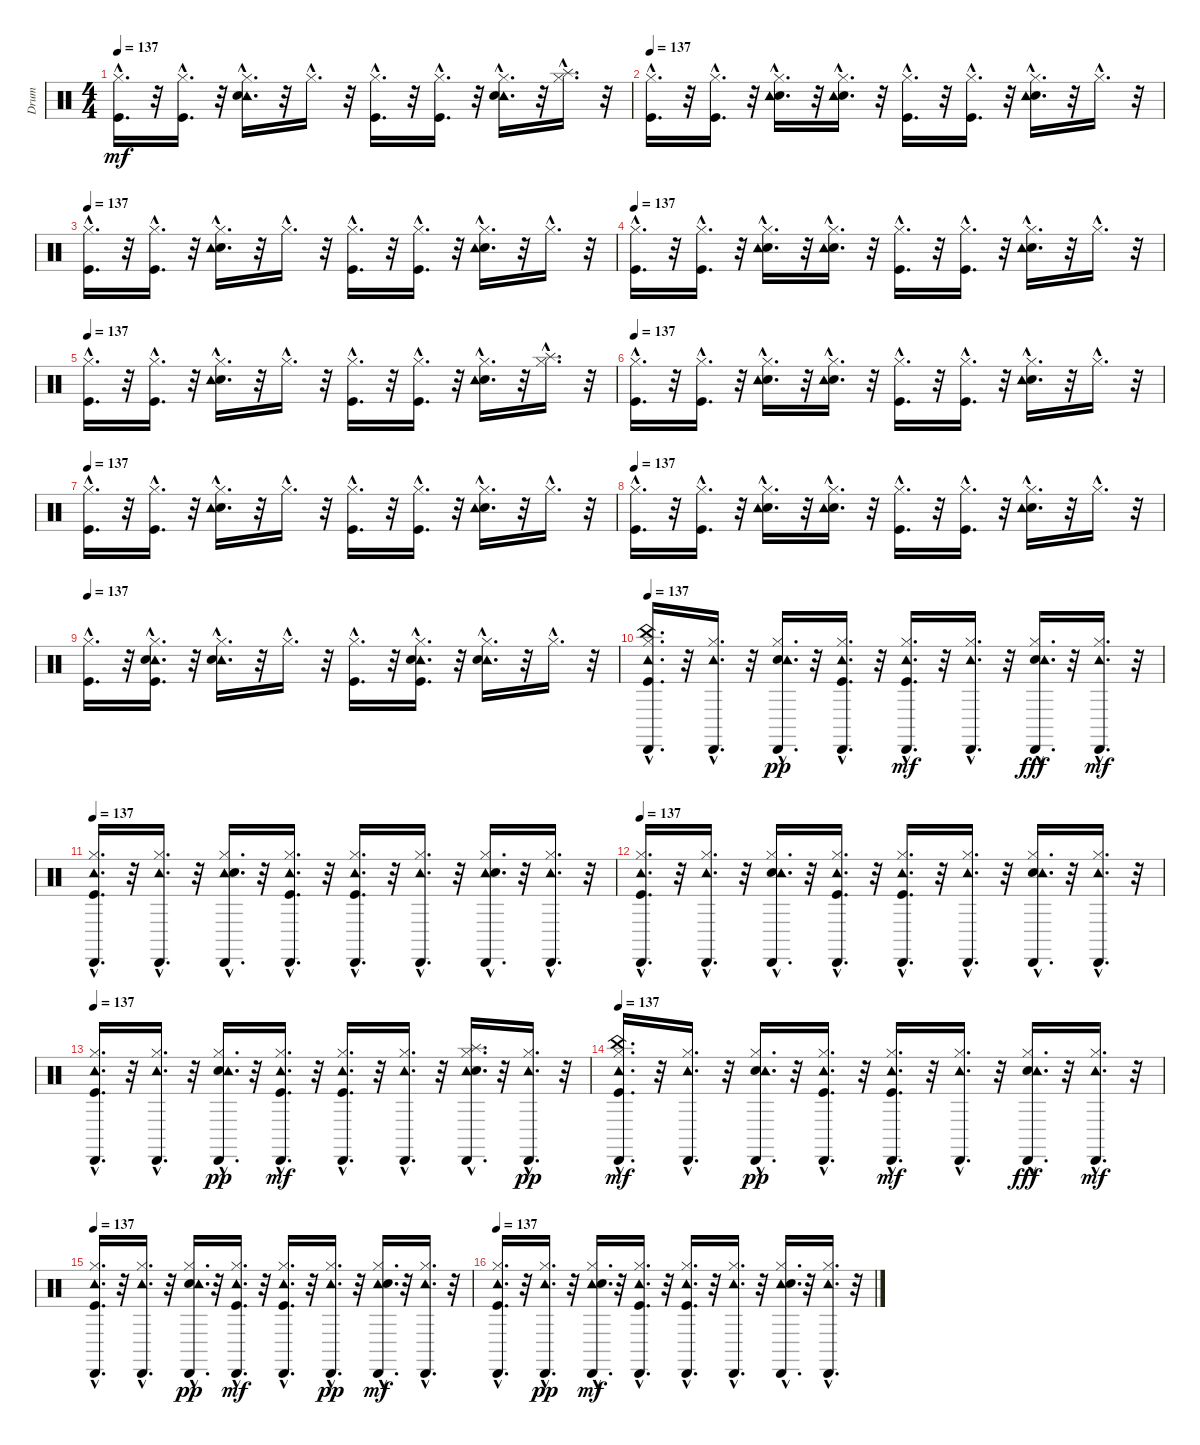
\track ("Drum" "Drum") {instrument percussion}
\staff {score}
\articulation defaults
\ts (4 4)
\tempo 137
\clef neutral
\ks c
("Hi-Hat (closed)"{hac} "Kick (hit)"{hac}).16{d dy mf} r.32 ("Kick (hit)"{hac} "Hi-Hat (closed)"{hac}).16{d} r.32 ("Hi-Hat (closed)"{hac} "Tambourine (hit)"{hac} "Snare (hit) 2"{hac}).16{d} r.32 "Hi-Hat (closed)"{hac}.16{d} r.32 ("Hi-Hat (closed)"{hac} "Kick (hit)"{hac}).16{d} r.32 ("Kick (hit)"{hac} "Hi-Hat (closed)"{hac}).16{d} r.32 ("Tambourine (hit)"{hac} "Snare (hit) 2"{hac} "Hi-Hat (closed)"{hac}).16{d} r.32 ("Hi-Hat (closed)"{hac} "Splash (hit)"{hac}).16{d} r.32 |
\tempo 137
("Kick (hit)"{hac} "Hi-Hat (closed)"{hac}).16{d} r.32 ("Kick (hit)"{hac} "Hi-Hat (closed)"{hac}).16{d} r.32 ("Snare (hit) 2"{hac} "Hi-Hat (closed)"{hac} "Tambourine (hit)"{hac}).16{d} r.32 ("Snare (hit) 2"{hac} "Hi-Hat (closed)"{hac} "Tambourine (hit)"{hac}).16{d} r.32 ("Kick (hit)"{hac} "Hi-Hat (closed)"{hac}).16{d} r.32 ("Kick (hit)"{hac} "Hi-Hat (closed)"{hac}).16{d} r.32 ("Snare (hit) 2"{hac} "Hi-Hat (closed)"{hac} "Tambourine (hit)"{hac}).16{d} r.32 "Hi-Hat (closed)"{hac}.16{d} r.32 |
\tempo 137
("Kick (hit)"{hac} "Hi-Hat (closed)"{hac}).16{d} r.32 ("Kick (hit)"{hac} "Hi-Hat (closed)"{hac}).16{d} r.32 ("Snare (hit) 2"{hac} "Hi-Hat (closed)"{hac} "Tambourine (hit)"{hac}).16{d} r.32 "Hi-Hat (closed)"{hac}.16{d} r.32 ("Kick (hit)"{hac} "Hi-Hat (closed)"{hac}).16{d} r.32 ("Kick (hit)"{hac} "Hi-Hat (closed)"{hac}).16{d} r.32 ("Snare (hit) 2"{hac} "Hi-Hat (closed)"{hac} "Tambourine (hit)"{hac}).16{d} r.32 "Hi-Hat (closed)"{hac}.16{d} r.32 |
\tempo 137
("Kick (hit)"{hac} "Hi-Hat (closed)"{hac}).16{d} r.32 ("Kick (hit)"{hac} "Hi-Hat (closed)"{hac}).16{d} r.32 ("Snare (hit) 2"{hac} "Hi-Hat (closed)"{hac} "Tambourine (hit)"{hac}).16{d} r.32 ("Snare (hit) 2"{hac} "Hi-Hat (closed)"{hac} "Tambourine (hit)"{hac}).16{d} r.32 ("Kick (hit)"{hac} "Hi-Hat (closed)"{hac}).16{d} r.32 ("Kick (hit)"{hac} "Hi-Hat (closed)"{hac}).16{d} r.32 ("Snare (hit) 2"{hac} "Tambourine (hit)"{hac} "Hi-Hat (closed)"{hac}).16{d} r.32 "Hi-Hat (closed)"{hac}.16{d} r.32 |
\tempo 137
("Kick (hit)"{hac} "Hi-Hat (closed)"{hac}).16{d} r.32 ("Hi-Hat (closed)"{hac} "Kick (hit)"{hac}).16{d} r.32 ("Hi-Hat (closed)"{hac} "Snare (hit) 2"{hac} "Tambourine (hit)"{hac}).16{d} r.32 "Hi-Hat (closed)"{hac}.16{d} r.32 ("Hi-Hat (closed)"{hac} "Kick (hit)"{hac}).16{d} r.32 ("Hi-Hat (closed)"{hac} "Kick (hit)"{hac}).16{d} r.32 ("Snare (hit) 2"{hac} "Tambourine (hit)"{hac} "Hi-Hat (closed)"{hac}).16{d} r.32 ("Hi-Hat (closed)"{hac} "Splash (hit)"{hac}).16{d} r.32 |
\tempo 137
("Kick (hit)"{hac} "Hi-Hat (closed)"{hac}).16{d} r.32 ("Kick (hit)"{hac} "Hi-Hat (closed)"{hac}).16{d} r.32 ("Snare (hit) 2"{hac} "Hi-Hat (closed)"{hac} "Tambourine (hit)"{hac}).16{d} r.32 ("Snare (hit) 2"{hac} "Hi-Hat (closed)"{hac} "Tambourine (hit)"{hac}).16{d} r.32 ("Kick (hit)"{hac} "Hi-Hat (closed)"{hac}).16{d} r.32 ("Kick (hit)"{hac} "Hi-Hat (closed)"{hac}).16{d} r.32 ("Snare (hit) 2"{hac} "Hi-Hat (closed)"{hac} "Tambourine (hit)"{hac}).16{d} r.32 "Hi-Hat (closed)"{hac}.16{d} r.32 |
\tempo 137
("Kick (hit)"{hac} "Hi-Hat (closed)"{hac}).16{d} r.32 ("Kick (hit)"{hac} "Hi-Hat (closed)"{hac}).16{d} r.32 ("Snare (hit) 2"{hac} "Hi-Hat (closed)"{hac} "Tambourine (hit)"{hac}).16{d} r.32 "Hi-Hat (closed)"{hac}.16{d} r.32 ("Kick (hit)"{hac} "Hi-Hat (closed)"{hac}).16{d} r.32 ("Kick (hit)"{hac} "Hi-Hat (closed)"{hac}).16{d} r.32 ("Snare (hit) 2"{hac} "Hi-Hat (closed)"{hac} "Tambourine (hit)"{hac}).16{d} r.32 "Hi-Hat (closed)"{hac}.16{d} r.32 |
\tempo 137
("Kick (hit)"{hac} "Hi-Hat (closed)"{hac}).16{d} r.32 ("Hi-Hat (closed)"{hac} "Kick (hit)"{hac}).16{d} r.32 ("Snare (hit) 2"{hac} "Hi-Hat (closed)"{hac} "Tambourine (hit)"{hac}).16{d} r.32 ("Snare (hit) 2"{hac} "Tambourine (hit)"{hac} "Hi-Hat (closed)"{hac}).16{d} r.32 ("Hi-Hat (closed)"{hac} "Kick (hit)"{hac}).16{d} r.32 ("Hi-Hat (closed)"{hac} "Kick (hit)"{hac}).16{d} r.32 ("Snare (hit) 2"{hac} "Hi-Hat (closed)"{hac} "Tambourine (hit)"{hac}).16{d} r.32 "Hi-Hat (closed)"{hac}.16{d} r.32 |
\tempo 137
("Hi-Hat (closed)"{hac} "Kick (hit)"{hac}).16{d} r.32 ("Tambourine (hit)"{hac} "Kick (hit)"{hac} "Hi-Hat (closed)"{hac} "Snare (hit) 2"{hac}).16{d} r.32 ("Hi-Hat (closed)"{hac} "Tambourine (hit)"{hac} "Snare (hit) 2"{hac}).16{d} r.32 "Hi-Hat (closed)"{hac}.16{d} r.32 ("Hi-Hat (closed)"{hac} "Kick (hit)"{hac}).16{d} r.32 ("Kick (hit)"{hac} "Tambourine (hit)"{hac} "Snare (hit) 2"{hac} "Hi-Hat (closed)"{hac}).16{d} r.32 ("Tambourine (hit)"{hac} "Hi-Hat (closed)"{hac} "Snare (hit) 2"{hac}).16{d} r.32 "Hi-Hat (closed)"{hac}.16{d} r.32 |
\tempo 137
("China (hit)"{hac} "Cabasa (hit)"{hac} "Tambourine (hit)"{hac} "Kick (hit)"{hac} "Hi-Hat (closed)"{hac}).16{d} r.32 ("Cabasa (hit)"{hac} "Tambourine (hit)"{hac} "Hi-Hat (closed)"{hac}).16{d} r.32 ("Cabasa (hit)"{hac} "Snare (hit) 2"{hac} "Hi-Hat (closed)"{hac} "Tambourine (hit)"{hac}).16{d dy pp} r.32 ("Kick (hit)"{hac} "Cabasa (hit)"{hac} "Hi-Hat (closed)"{hac} "Tambourine (hit)"{hac}).16{d} r.32 ("Cabasa (hit)"{hac} "Tambourine (hit)"{hac} "Kick (hit)"{hac} "Hi-Hat (closed)"{hac}).16{d dy mf} r.32 ("Cabasa (hit)"{hac} "Tambourine (hit)"{hac} "Hi-Hat (closed)"{hac}).16{d} r.32 ("Cabasa (hit)"{hac} "Snare (hit) 2"{hac} "Hi-Hat (closed)"{hac} "Tambourine (hit)"{hac}).16{d dy fff} r.32 ("Cabasa (hit)"{hac} "Tambourine (hit)"{hac} "Hi-Hat (closed)"{hac}).16{d dy mf} r.32 |
\tempo 137
("Hi-Hat (closed)"{hac} "Kick (hit)"{hac} "Tambourine (hit)"{hac} "Cabasa (hit)"{hac}).16{d} r.32 ("Hi-Hat (closed)"{hac} "Tambourine (hit)"{hac} "Cabasa (hit)"{hac}).16{d} r.32 ("Tambourine (hit)"{hac} "Hi-Hat (closed)"{hac} "Snare (hit) 2"{hac} "Cabasa (hit)"{hac}).16{d} r.32 ("Tambourine (hit)"{hac} "Hi-Hat (closed)"{hac} "Cabasa (hit)"{hac} "Kick (hit)"{hac}).16{d} r.32 ("Hi-Hat (closed)"{hac} "Kick (hit)"{hac} "Tambourine (hit)"{hac} "Cabasa (hit)"{hac}).16{d} r.32 ("Hi-Hat (closed)"{hac} "Tambourine (hit)"{hac} "Cabasa (hit)"{hac}).16{d} r.32 ("Tambourine (hit)"{hac} "Hi-Hat (closed)"{hac} "Snare (hit) 2"{hac} "Cabasa (hit)"{hac}).16{d} r.32 ("Hi-Hat (closed)"{hac} "Tambourine (hit)"{hac} "Cabasa (hit)"{hac}).16{d} r.32 |
\tempo 137
("Kick (hit)"{hac} "Hi-Hat (closed)"{hac} "Tambourine (hit)"{hac} "Cabasa (hit)"{hac}).16{d} r.32 ("Cabasa (hit)"{hac} "Tambourine (hit)"{hac} "Hi-Hat (closed)"{hac}).16{d} r.32 ("Hi-Hat (closed)"{hac} "Snare (hit) 2"{hac} "Tambourine (hit)"{hac} "Cabasa (hit)"{hac}).16{d} r.32 ("Hi-Hat (closed)"{hac} "Tambourine (hit)"{hac} "Cabasa (hit)"{hac} "Kick (hit)"{hac}).16{d} r.32 ("Kick (hit)"{hac} "Tambourine (hit)"{hac} "Hi-Hat (closed)"{hac} "Cabasa (hit)"{hac}).16{d} r.32 ("Tambourine (hit)"{hac} "Hi-Hat (closed)"{hac} "Cabasa (hit)"{hac}).16{d} r.32 ("Hi-Hat (closed)"{hac} "Snare (hit) 2"{hac} "Tambourine (hit)"{hac} "Cabasa (hit)"{hac}).16{d} r.32 ("Tambourine (hit)"{hac} "Hi-Hat (closed)"{hac} "Cabasa (hit)"{hac}).16{d} r.32 |
\tempo 137
("Kick (hit)"{hac} "Hi-Hat (closed)"{hac} "Tambourine (hit)"{hac} "Cabasa (hit)"{hac}).16{d} r.32 ("Cabasa (hit)"{hac} "Tambourine (hit)"{hac} "Hi-Hat (closed)"{hac}).16{d} r.32 ("Hi-Hat (closed)"{hac} "Cabasa (hit)"{hac} "Snare (hit) 2"{hac} "Tambourine (hit)"{hac}).16{d dy pp} r.32 ("Tambourine (hit)"{hac} "Hi-Hat (closed)"{hac} "Cabasa (hit)"{hac} "Kick (hit)"{hac}).16{d dy mf} r.32 ("Hi-Hat (closed)"{hac} "Tambourine (hit)"{hac} "Kick (hit)"{hac} "Cabasa (hit)"{hac}).16{d} r.32 ("Tambourine (hit)"{hac} "Cabasa (hit)"{hac} "Hi-Hat (closed)"{hac}).16{d} r.32 ("Hi-Hat (closed)"{hac} "Tambourine (hit)"{hac} "Splash (hit)"{hac} "Snare (hit) 2"{hac} "Cabasa (hit)"{hac}).16{d} r.32 ("Hi-Hat (closed)"{hac} "Cabasa (hit)"{hac} "Tambourine (hit)"{hac}).16{d dy pp} r.32 |
\tempo 137
("China (hit)"{hac} "Cabasa (hit)"{hac} "Tambourine (hit)"{hac} "Kick (hit)"{hac} "Hi-Hat (closed)"{hac}).16{d dy mf} r.32 ("Cabasa (hit)"{hac} "Tambourine (hit)"{hac} "Hi-Hat (closed)"{hac}).16{d} r.32 ("Cabasa (hit)"{hac} "Snare (hit) 2"{hac} "Hi-Hat (closed)"{hac} "Tambourine (hit)"{hac}).16{d dy pp} r.32 ("Kick (hit)"{hac} "Cabasa (hit)"{hac} "Hi-Hat (closed)"{hac} "Tambourine (hit)"{hac}).16{d} r.32 ("Cabasa (hit)"{hac} "Tambourine (hit)"{hac} "Kick (hit)"{hac} "Hi-Hat (closed)"{hac}).16{d dy mf} r.32 ("Cabasa (hit)"{hac} "Tambourine (hit)"{hac} "Hi-Hat (closed)"{hac}).16{d} r.32 ("Cabasa (hit)"{hac} "Snare (hit) 2"{hac} "Hi-Hat (closed)"{hac} "Tambourine (hit)"{hac}).16{d dy fff} r.32 ("Cabasa (hit)"{hac} "Tambourine (hit)"{hac} "Hi-Hat (closed)"{hac}).16{d dy mf} r.32 |
\tempo 137
("Tambourine (hit)"{hac} "Kick (hit)"{hac} "Cabasa (hit)"{hac} "Hi-Hat (closed)"{hac}).16{d} r.32 ("Tambourine (hit)"{hac} "Cabasa (hit)"{hac} "Hi-Hat (closed)"{hac}).16{d} r.32 ("Cabasa (hit)"{hac} "Hi-Hat (closed)"{hac} "Snare (hit) 2"{hac} "Tambourine (hit)"{hac}).16{d dy pp} r.32 ("Hi-Hat (closed)"{hac} "Tambourine (hit)"{hac} "Cabasa (hit)"{hac} "Kick (hit)"{hac}).16{d dy mf} r.32 ("Kick (hit)"{hac} "Hi-Hat (closed)"{hac} "Tambourine (hit)"{hac} "Cabasa (hit)"{hac}).16{d} r.32 ("Hi-Hat (closed)"{hac} "Cabasa (hit)"{hac} "Tambourine (hit)"{hac}).16{d dy pp} r.32 ("Tambourine (hit)"{hac} "Cabasa (hit)"{hac} "Snare (hit) 2"{hac} "Hi-Hat (closed)"{hac}).16{d dy mf} r.32 ("Tambourine (hit)"{hac} "Cabasa (hit)"{hac} "Hi-Hat (closed)"{hac}).16{d} r.32 |
\tempo 137
("Kick (hit)"{hac} "Hi-Hat (closed)"{hac} "Tambourine (hit)"{hac} "Cabasa (hit)"{hac}).16{d} r.32 ("Hi-Hat (closed)"{hac} "Cabasa (hit)"{hac} "Tambourine (hit)"{hac}).16{d dy pp} r.32 ("Tambourine (hit)"{hac} "Snare (hit) 2"{hac} "Hi-Hat (closed)"{hac} "Cabasa (hit)"{hac}).16{d dy mf} r.32 ("Tambourine (hit)"{hac} "Hi-Hat (closed)"{hac} "Kick (hit)"{hac} "Cabasa (hit)"{hac}).16{d} r.32 ("Hi-Hat (closed)"{hac} "Tambourine (hit)"{hac} "Kick (hit)"{hac} "Cabasa (hit)"{hac}).16{d} r.32 ("Hi-Hat (closed)"{hac} "Tambourine (hit)"{hac} "Cabasa (hit)"{hac}).16{d} r.32 ("Cabasa (hit)"{hac} "Tambourine (hit)"{hac} "Snare (hit) 2"{hac} "Hi-Hat (closed)"{hac}).16{d} r.32 ("Cabasa (hit)"{hac} "Tambourine (hit)"{hac} "Hi-Hat (closed)"{hac}).16{d} r.32
